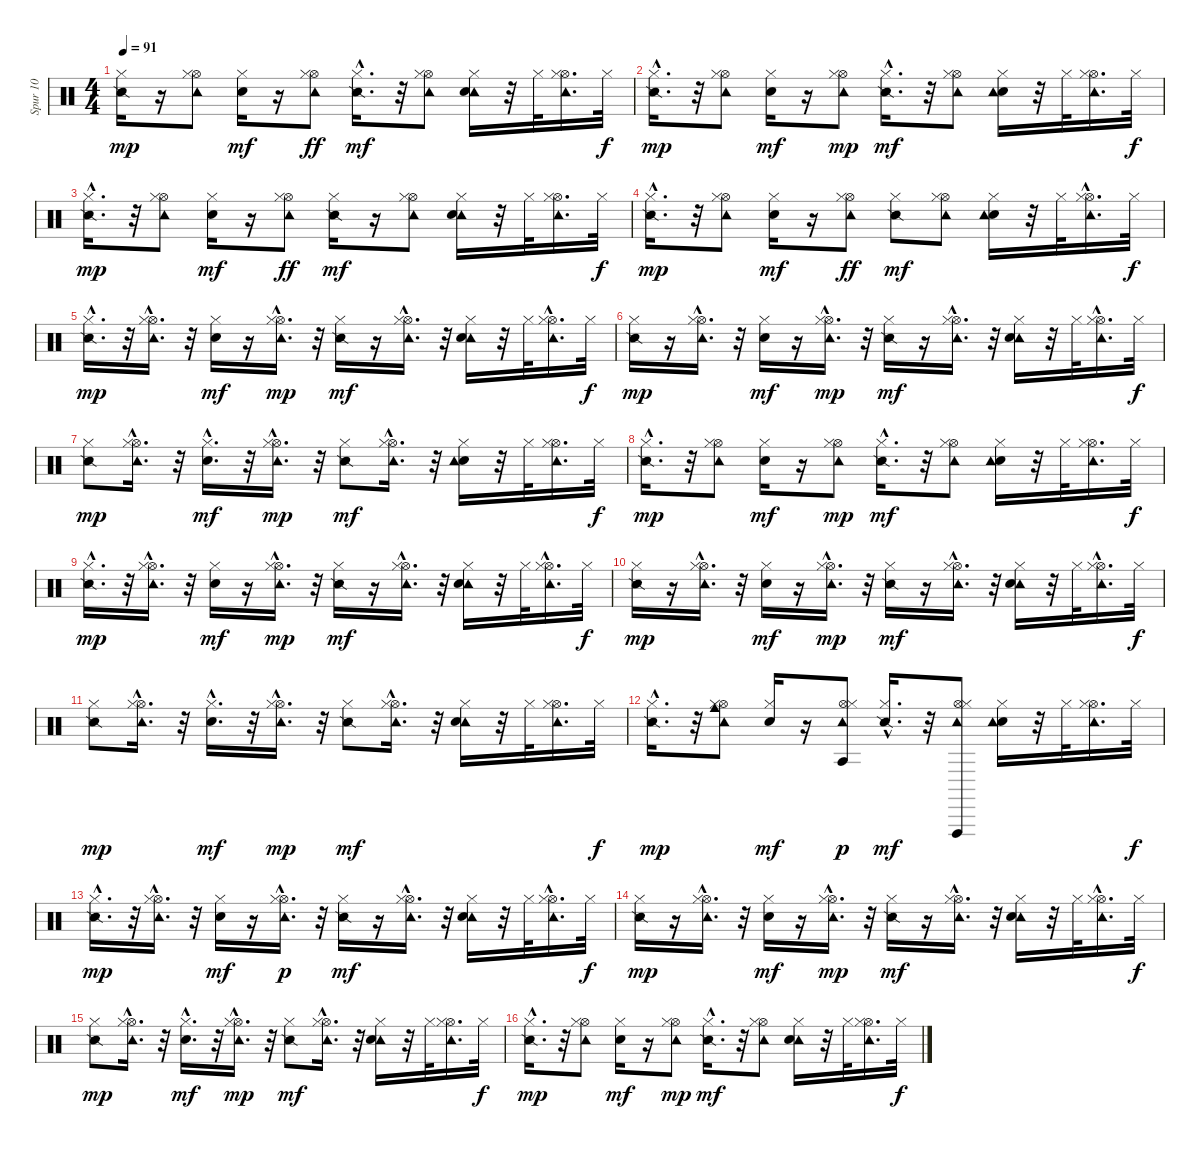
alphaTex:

\track ("Spur 10" "Spur 10") {instrument percussion}
\staff {score}
\articulation defaults
\ts (4 4)
\tempo 91
\clef neutral
\ks c
("Snare (side stick) 2" "Hi-Hat (closed)").16{dy mp} r.16 ("Tambourine (hit)" "Hi-Hat (open)" "Hi-Hat (closed)").8 ("Electric Snare (hit)" "Hi-Hat (closed)").16{dy mf} r.16 ("Tambourine (hit)" "Hi-Hat (open)" "Hi-Hat (closed)").8{dy ff} ("Snare (side stick) 2"{hac} "Hi-Hat (closed)").16{d dy mf} r.32 ("Tambourine (hit)" "Hi-Hat (open)" "Hi-Hat (closed)").8 ("Tambourine (hit)" "Electric Snare (hit)" "Hi-Hat (closed)").16 r.32 "Hi-Hat (closed)".32 ("Tambourine (hit)" "Hi-Hat (open)" "Hi-Hat (closed)").16{d} "Hi-Hat (closed)".32{dy f} |
("Snare (side stick) 2"{hac} "Hi-Hat (closed)").16{d dy mp} r.32 ("Tambourine (hit)" "Hi-Hat (open)" "Hi-Hat (closed)").8 ("Electric Snare (hit)" "Hi-Hat (closed)").16{dy mf} r.16 ("Tambourine (hit)" "Hi-Hat (open)" "Hi-Hat (closed)").8{dy mp} ("Snare (side stick) 2"{hac} "Hi-Hat (closed)").16{d dy mf} r.32 ("Tambourine (hit)" "Hi-Hat (open)" "Hi-Hat (closed)").8 ("Electric Snare (hit)" "Tambourine (hit)" "Hi-Hat (closed)").16 r.32 "Hi-Hat (closed)".32 ("Tambourine (hit)" "Hi-Hat (open)" "Hi-Hat (closed)").16{d} "Hi-Hat (closed)".32{dy f} |
("Snare (side stick) 2"{hac} "Hi-Hat (closed)").16{d dy mp} r.32 ("Tambourine (hit)" "Hi-Hat (open)" "Hi-Hat (closed)").8 ("Electric Snare (hit)" "Hi-Hat (closed)").16{dy mf} r.16 ("Tambourine (hit)" "Hi-Hat (open)" "Hi-Hat (closed)").8{dy ff} ("Snare (side stick) 2" "Hi-Hat (closed)").16{dy mf} r.16 ("Tambourine (hit)" "Hi-Hat (open)" "Hi-Hat (closed)").8 ("Tambourine (hit)" "Electric Snare (hit)" "Hi-Hat (closed)").16 r.32 "Hi-Hat (closed)".32 ("Tambourine (hit)" "Hi-Hat (open)" "Hi-Hat (closed)").16{d} "Hi-Hat (closed)".32{dy f} |
("Snare (side stick) 2"{hac} "Hi-Hat (closed)").16{d dy mp} r.32 ("Tambourine (hit)" "Hi-Hat (open)" "Hi-Hat (closed)").8 ("Electric Snare (hit)" "Hi-Hat (closed)").16{dy mf} r.16 ("Tambourine (hit)" "Hi-Hat (open)" "Hi-Hat (closed)").8{dy ff} ("Snare (side stick) 2" "Hi-Hat (closed)").8{dy mf} ("Tambourine (hit)" "Hi-Hat (open)" "Hi-Hat (closed)").8 ("Electric Snare (hit)" "Tambourine (hit)" "Hi-Hat (closed)").16 r.32 "Hi-Hat (closed)".32 ("Tambourine (hit)" "Hi-Hat (open)"{hac} "Hi-Hat (closed)").16{d} "Hi-Hat (closed)".32{dy f} |
("Snare (side stick) 2"{hac} "Hi-Hat (closed)").16{d dy mp} r.32 ("Tambourine (hit)" "Hi-Hat (open)"{hac} "Hi-Hat (closed)").16{d} r.32 ("Electric Snare (hit)" "Hi-Hat (closed)").16{dy mf} r.16 ("Tambourine (hit)" "Hi-Hat (open)"{hac} "Hi-Hat (closed)").16{d dy mp} r.32 ("Snare (side stick) 2" "Hi-Hat (closed)").16{dy mf} r.16 ("Tambourine (hit)" "Hi-Hat (open)"{hac} "Hi-Hat (closed)").16{d} r.32 ("Tambourine (hit)" "Electric Snare (hit)" "Hi-Hat (closed)").16 r.32 "Hi-Hat (closed)".32 ("Tambourine (hit)"{hac} "Hi-Hat (open)"{hac} "Hi-Hat (closed)").16{d} "Hi-Hat (closed)".32{dy f} |
("Snare (side stick) 2" "Hi-Hat (closed)").16{dy mp} r.16 ("Tambourine (hit)"{hac} "Hi-Hat (open)"{hac} "Hi-Hat (closed)").16{d} r.32 ("Electric Snare (hit)" "Hi-Hat (closed)").16{dy mf} r.16 ("Tambourine (hit)"{hac} "Hi-Hat (open)"{hac} "Hi-Hat (closed)").16{d dy mp} r.32 ("Snare (side stick) 2" "Hi-Hat (closed)").16{dy mf} r.16 ("Tambourine (hit)" "Hi-Hat (open)"{hac} "Hi-Hat (closed)").16{d} r.32 ("Tambourine (hit)" "Electric Snare (hit)" "Hi-Hat (closed)").16 r.32 "Hi-Hat (closed)".32 ("Tambourine (hit)" "Hi-Hat (open)"{hac} "Hi-Hat (closed)").16{d} "Hi-Hat (closed)".32{dy f} |
("Snare (side stick) 2" "Hi-Hat (closed)").8{dy mp} ("Tambourine (hit)" "Hi-Hat (open)"{hac} "Hi-Hat (closed)").16{d} r.32 ("Electric Snare (hit)"{hac} "Hi-Hat (closed)").16{d dy mf} r.32 ("Tambourine (hit)" "Hi-Hat (open)"{hac} "Hi-Hat (closed)").16{d dy mp} r.32 ("Snare (side stick) 2" "Hi-Hat (closed)").8{dy mf} ("Tambourine (hit)" "Hi-Hat (open)"{hac} "Hi-Hat (closed)").16{d} r.32 ("Electric Snare (hit)" "Tambourine (hit)" "Hi-Hat (closed)").16 r.32 "Hi-Hat (closed)".32 ("Tambourine (hit)" "Hi-Hat (open)" "Hi-Hat (closed)").16{d} "Hi-Hat (closed)".32{dy f} |
("Snare (side stick) 2"{hac} "Hi-Hat (closed)").16{d dy mp} r.32 ("Tambourine (hit)" "Hi-Hat (open)" "Hi-Hat (closed)").8 ("Electric Snare (hit)" "Hi-Hat (closed)").16{dy mf} r.16 ("Tambourine (hit)" "Hi-Hat (open)" "Hi-Hat (closed)").8{dy mp} ("Snare (side stick) 2"{hac} "Hi-Hat (closed)").16{d dy mf} r.32 ("Tambourine (hit)" "Hi-Hat (open)" "Hi-Hat (closed)").8 ("Electric Snare (hit)" "Tambourine (hit)" "Hi-Hat (closed)").16 r.32 "Hi-Hat (closed)".32 ("Tambourine (hit)" "Hi-Hat (open)" "Hi-Hat (closed)").16{d} "Hi-Hat (closed)".32{dy f} |
("Snare (side stick) 2"{hac} "Hi-Hat (closed)").16{d dy mp} r.32 ("Tambourine (hit)" "Hi-Hat (open)"{hac} "Hi-Hat (closed)").16{d} r.32 ("Electric Snare (hit)" "Hi-Hat (closed)").16{dy mf} r.16 ("Tambourine (hit)" "Hi-Hat (open)"{hac} "Hi-Hat (closed)").16{d dy mp} r.32 ("Snare (side stick) 2" "Hi-Hat (closed)").16{dy mf} r.16 ("Tambourine (hit)" "Hi-Hat (open)"{hac} "Hi-Hat (closed)").16{d} r.32 ("Tambourine (hit)" "Electric Snare (hit)" "Hi-Hat (closed)").16 r.32 "Hi-Hat (closed)".32 ("Tambourine (hit)" "Hi-Hat (open)"{hac} "Hi-Hat (closed)").16{d} "Hi-Hat (closed)".32{dy f} |
("Snare (side stick) 2" "Hi-Hat (closed)").16{dy mp} r.16 ("Tambourine (hit)" "Hi-Hat (open)"{hac} "Hi-Hat (closed)").16{d} r.32 ("Electric Snare (hit)" "Hi-Hat (closed)").16{dy mf} r.16 ("Tambourine (hit)" "Hi-Hat (open)"{hac} "Hi-Hat (closed)").16{d dy mp} r.32 ("Snare (side stick) 2" "Hi-Hat (closed)").16{dy mf} r.16 ("Tambourine (hit)" "Hi-Hat (open)"{hac} "Hi-Hat (closed)").16{d} r.32 ("Tambourine (hit)" "Electric Snare (hit)" "Hi-Hat (closed)").16 r.32 "Hi-Hat (closed)".32 ("Tambourine (hit)" "Hi-Hat (open)"{hac} "Hi-Hat (closed)").16{d} "Hi-Hat (closed)".32{dy f} |
("Snare (side stick) 2" "Hi-Hat (closed)").8{dy mp} ("Tambourine (hit)" "Hi-Hat (open)"{hac} "Hi-Hat (closed)").16{d} r.32 ("Electric Snare (hit)"{hac} "Hi-Hat (closed)").16{d dy mf} r.32 ("Tambourine (hit)" "Hi-Hat (open)"{hac} "Hi-Hat (closed)").16{d dy mp} r.32 ("Snare (side stick) 2" "Hi-Hat (closed)").8{dy mf} ("Tambourine (hit)" "Hi-Hat (open)"{hac} "Hi-Hat (closed)").16{d} r.32 ("Tambourine (hit)" "Electric Snare (hit)" "Hi-Hat (closed)").16 r.32 "Hi-Hat (closed)".32 ("Tambourine (hit)" "Hi-Hat (open)" "Hi-Hat (closed)").16{d} "Hi-Hat (closed)".32{dy f} |
("Snare (side stick) 2"{hac} "Hi-Hat (closed)").16{d dy mp} r.32 ("Tambourine (hit)" "Hi-Hat (open)" "Cowbell medium (hit)" "Hi-Hat (closed)").8 ("Electric Snare (hit)" "Hi-Hat (closed)").16{dy mf} r.16 ("Tambourine (hit)" "Hi-Hat (open)" "Hi-Hat (closed)" "Agogo tow (hit)").8{dy p} ("Snare (side stick) 2"{hac} "Hi-Hat (closed)").16{d dy mf} r.32 ("Vibraslap (hit)" "Tambourine (hit)" "Hi-Hat (open)" "Hi-Hat (closed)").8 ("Electric Snare (hit)" "Tambourine (hit)" "Hi-Hat (closed)").16 r.32 "Hi-Hat (closed)".32 ("Tambourine (hit)" "Hi-Hat (open)" "Hi-Hat (closed)").16{d} "Hi-Hat (closed)".32{dy f} |
("Snare (side stick) 2"{hac} "Hi-Hat (closed)").16{d dy mp} r.32 ("Tambourine (hit)" "Hi-Hat (open)"{hac} "Hi-Hat (closed)").16{d} r.32 ("Electric Snare (hit)" "Hi-Hat (closed)").16{dy mf} r.16 ("Tambourine (hit)" "Hi-Hat (open)"{hac} "Hi-Hat (closed)").16{d dy p} r.32 ("Snare (side stick) 2" "Hi-Hat (closed)").16{dy mf} r.16 ("Tambourine (hit)" "Hi-Hat (open)"{hac} "Hi-Hat (closed)").16{d} r.32 ("Tambourine (hit)" "Electric Snare (hit)" "Hi-Hat (closed)").16 r.32 "Hi-Hat (closed)".32 ("Tambourine (hit)" "Hi-Hat (open)"{hac} "Hi-Hat (closed)").16{d} "Hi-Hat (closed)".32{dy f} |
("Snare (side stick) 2" "Hi-Hat (closed)").16{dy mp} r.16 ("Tambourine (hit)" "Hi-Hat (open)"{hac} "Hi-Hat (closed)").16{d} r.32 ("Electric Snare (hit)" "Hi-Hat (closed)").16{dy mf} r.16 ("Tambourine (hit)" "Hi-Hat (open)"{hac} "Hi-Hat (closed)").16{d dy mp} r.32 ("Snare (side stick) 2" "Hi-Hat (closed)").16{dy mf} r.16 ("Tambourine (hit)" "Hi-Hat (open)"{hac} "Hi-Hat (closed)").16{d} r.32 ("Tambourine (hit)" "Electric Snare (hit)" "Hi-Hat (closed)").16 r.32 "Hi-Hat (closed)".32 ("Tambourine (hit)" "Hi-Hat (open)"{hac} "Hi-Hat (closed)").16{d} "Hi-Hat (closed)".32{dy f} |
("Snare (side stick) 2" "Hi-Hat (closed)").8{dy mp} ("Tambourine (hit)" "Hi-Hat (open)"{hac} "Hi-Hat (closed)").16{d} r.32 ("Electric Snare (hit)"{hac} "Hi-Hat (closed)").16{d dy mf} r.32 ("Tambourine (hit)" "Hi-Hat (open)"{hac} "Hi-Hat (closed)").16{d dy mp} r.32 ("Snare (side stick) 2" "Hi-Hat (closed)").8{dy mf} ("Tambourine (hit)" "Hi-Hat (open)"{hac} "Hi-Hat (closed)").16{d} r.32 ("Tambourine (hit)" "Electric Snare (hit)" "Hi-Hat (closed)").16 r.32 "Hi-Hat (closed)".32 ("Tambourine (hit)" "Hi-Hat (open)" "Hi-Hat (closed)").16{d} "Hi-Hat (closed)".32{dy f} |
("Snare (side stick) 2"{hac} "Hi-Hat (closed)").16{d dy mp} r.32 ("Tambourine (hit)" "Hi-Hat (open)" "Hi-Hat (closed)").8 ("Electric Snare (hit)" "Hi-Hat (closed)").16{dy mf} r.16 ("Tambourine (hit)" "Hi-Hat (open)" "Hi-Hat (closed)").8{dy mp} ("Snare (side stick) 2"{hac} "Hi-Hat (closed)").16{d dy mf} r.32 ("Tambourine (hit)" "Hi-Hat (open)" "Hi-Hat (closed)").8 ("Tambourine (hit)" "Electric Snare (hit)" "Hi-Hat (closed)").16 r.32 "Hi-Hat (closed)".32 ("Tambourine (hit)" "Hi-Hat (open)" "Hi-Hat (closed)").16{d} "Hi-Hat (closed)".32{dy f}
